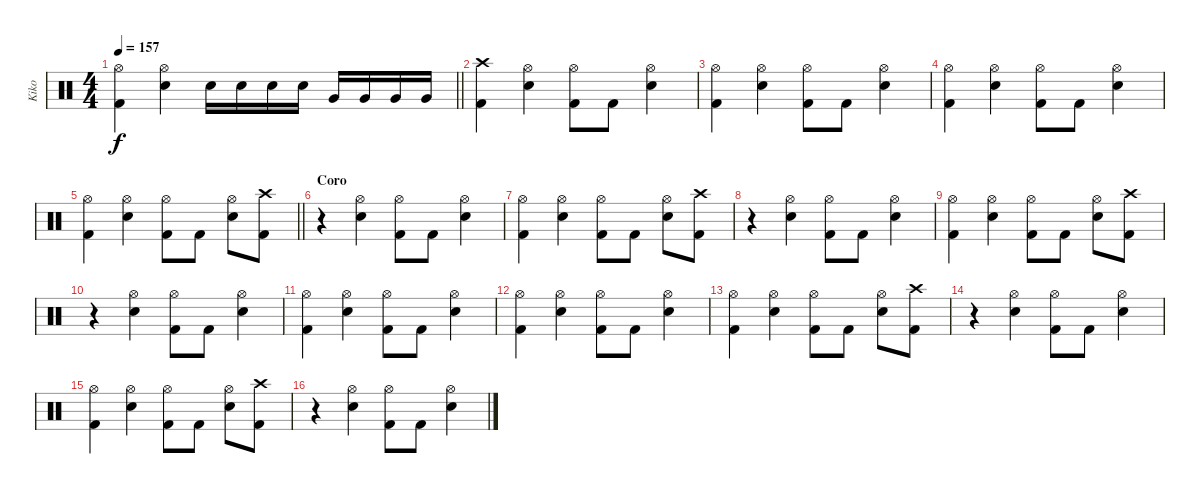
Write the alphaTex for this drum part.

\track ("Kiko" "Kiko") {instrument percussion}
\staff {score}
\articulation defaults
\ts (4 4)
\tempo 157
\clef neutral
\barLineRight lightlight
\ks c
("Hi-Hat (open)" "Kick (hit) 2").4{dy f} ("Hi-Hat (open)" "Electric Snare (hit)").4 "Electric Snare (hit)".16 "Electric Snare (hit)".16 "Electric Snare (hit)".16 "Electric Snare (hit)".16 "Very Low Tom (hit)".16 "Very Low Tom (hit)".16 "Very Low Tom (hit)".16 "Very Low Tom (hit)".16 |
("Crash high (hit)" "Kick (hit) 2").4 ("Hi-Hat (open)" "Electric Snare (hit)").4 ("Hi-Hat (open)" "Kick (hit) 2").8 "Kick (hit) 2".8 ("Hi-Hat (open)" "Electric Snare (hit)").4 |
("Hi-Hat (open)" "Kick (hit) 2").4 ("Hi-Hat (open)" "Electric Snare (hit)").4 ("Hi-Hat (open)" "Kick (hit) 2").8 "Kick (hit) 2".8 ("Hi-Hat (open)" "Electric Snare (hit)").4 |
("Hi-Hat (open)" "Kick (hit) 2").4 ("Hi-Hat (open)" "Electric Snare (hit)").4 ("Hi-Hat (open)" "Kick (hit) 2").8 "Kick (hit) 2".8 ("Hi-Hat (open)" "Electric Snare (hit)").4 |
\barLineRight lightlight
("Hi-Hat (open)" "Kick (hit) 2").4 ("Hi-Hat (open)" "Electric Snare (hit)").4 ("Hi-Hat (open)" "Kick (hit) 2").8 "Kick (hit) 2".8 ("Hi-Hat (open)" "Electric Snare (hit)").8 ("Crash high (hit)" "Kick (hit) 2").8 |
\section ("" "Coro")
r.4 ("Hi-Hat (open)" "Electric Snare (hit)").4 ("Hi-Hat (open)" "Kick (hit) 2").8 "Kick (hit) 2".8 ("Hi-Hat (open)" "Electric Snare (hit)").4 |
("Hi-Hat (open)" "Kick (hit) 2").4 ("Hi-Hat (open)" "Electric Snare (hit)").4 ("Hi-Hat (open)" "Kick (hit) 2").8 "Kick (hit) 2".8 ("Hi-Hat (open)" "Electric Snare (hit)").8 ("Crash high (hit)" "Kick (hit) 2").8 |
r.4 ("Hi-Hat (open)" "Electric Snare (hit)").4 ("Hi-Hat (open)" "Kick (hit) 2").8 "Kick (hit) 2".8 ("Hi-Hat (open)" "Electric Snare (hit)").4 |
("Hi-Hat (open)" "Kick (hit) 2").4 ("Hi-Hat (open)" "Electric Snare (hit)").4 ("Hi-Hat (open)" "Kick (hit) 2").8 "Kick (hit) 2".8 ("Hi-Hat (open)" "Electric Snare (hit)").8 ("Crash high (hit)" "Kick (hit) 2").8 |
r.4 ("Hi-Hat (open)" "Electric Snare (hit)").4 ("Hi-Hat (open)" "Kick (hit) 2").8 "Kick (hit) 2".8 ("Hi-Hat (open)" "Electric Snare (hit)").4 |
("Hi-Hat (open)" "Kick (hit) 2").4 ("Hi-Hat (open)" "Electric Snare (hit)").4 ("Hi-Hat (open)" "Kick (hit) 2").8 "Kick (hit) 2".8 ("Hi-Hat (open)" "Electric Snare (hit)").4 |
("Hi-Hat (open)" "Kick (hit) 2").4 ("Hi-Hat (open)" "Electric Snare (hit)").4 ("Hi-Hat (open)" "Kick (hit) 2").8 "Kick (hit) 2".8 ("Hi-Hat (open)" "Electric Snare (hit)").4 |
("Hi-Hat (open)" "Kick (hit) 2").4 ("Hi-Hat (open)" "Electric Snare (hit)").4 ("Hi-Hat (open)" "Kick (hit) 2").8 "Kick (hit) 2".8 ("Hi-Hat (open)" "Electric Snare (hit)").8 ("Crash high (hit)" "Kick (hit) 2").8 |
r.4 ("Hi-Hat (open)" "Electric Snare (hit)").4 ("Hi-Hat (open)" "Kick (hit) 2").8 "Kick (hit) 2".8 ("Hi-Hat (open)" "Electric Snare (hit)").4 |
("Hi-Hat (open)" "Kick (hit) 2").4 ("Hi-Hat (open)" "Electric Snare (hit)").4 ("Hi-Hat (open)" "Kick (hit) 2").8 "Kick (hit) 2".8 ("Hi-Hat (open)" "Electric Snare (hit)").8 ("Crash high (hit)" "Kick (hit) 2").8 |
r.4 ("Hi-Hat (open)" "Electric Snare (hit)").4 ("Hi-Hat (open)" "Kick (hit) 2").8 "Kick (hit) 2".8 ("Hi-Hat (open)" "Electric Snare (hit)").4
